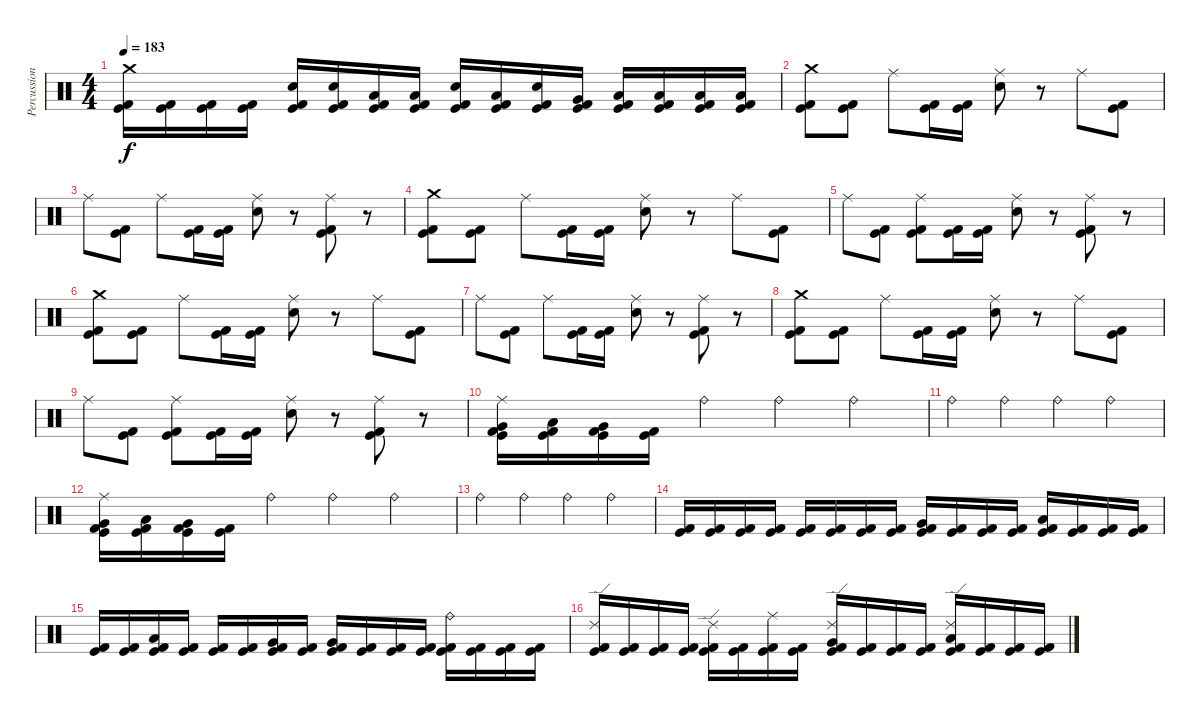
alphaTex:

\track ("Percussion" "Percussion") {instrument percussion}
\staff {score}
\articulation defaults
\ts (4 4)
\tempo 183
\clef neutral
\ks c
("Crash medium (hit)" "Kick (hit)" "Kick (hit) 2").16{dy f} ("Kick (hit)" "Kick (hit) 2").16 ("Kick (hit)" "Kick (hit) 2").16 ("Kick (hit)" "Kick (hit) 2").16 ("Electric Snare (hit)" "Kick (hit)" "Kick (hit) 2").16 ("Electric Snare (hit)" "Kick (hit)" "Kick (hit) 2").16 ("Low Tom (hit)" "Kick (hit)" "Kick (hit) 2").16 ("Low Tom (hit)" "Kick (hit)" "Kick (hit) 2").16 ("Electric Snare (hit)" "Kick (hit)" "Kick (hit) 2").16 ("Low Tom (hit)" "Kick (hit)" "Kick (hit) 2").16 ("Electric Snare (hit)" "Kick (hit)" "Kick (hit) 2").16 ("Very Low Tom (hit)" "Kick (hit)" "Kick (hit) 2").16 ("Low Tom (hit)" "Kick (hit)" "Kick (hit) 2").16 ("Low Tom (hit)" "Kick (hit)" "Kick (hit) 2").16 ("Low Tom (hit)" "Kick (hit)" "Kick (hit) 2").16 ("Low Tom (hit)" "Kick (hit)" "Kick (hit) 2").16 |
("Crash medium (hit)" "Kick (hit)" "Kick (hit) 2").8 ("Kick (hit)" "Kick (hit) 2").8 "Ride (middle)".8 ("Kick (hit)" "Kick (hit) 2").16 ("Kick (hit)" "Kick (hit) 2").16 ("Ride (middle)" "Electric Snare (hit)").8 r.8 "Ride (middle)".8 ("Kick (hit)" "Kick (hit) 2").8 |
"Ride (middle)".8 ("Kick (hit)" "Kick (hit) 2").8 "Ride (middle)".8 ("Kick (hit)" "Kick (hit) 2").16 ("Kick (hit)" "Kick (hit) 2").16 ("Ride (middle)" "Electric Snare (hit)").8 r.8 ("Ride (middle)" "Kick (hit)" "Kick (hit) 2").8 r.8 |
("Crash medium (hit)" "Kick (hit)" "Kick (hit) 2").8 ("Kick (hit)" "Kick (hit) 2").8 "Ride (middle)".8 ("Kick (hit)" "Kick (hit) 2").16 ("Kick (hit)" "Kick (hit) 2").16 ("Ride (middle)" "Electric Snare (hit)").8 r.8 "Ride (middle)".8 ("Kick (hit)" "Kick (hit) 2").8 |
"Ride (middle)".8 ("Kick (hit)" "Kick (hit) 2").8 ("Ride (middle)" "Kick (hit)" "Kick (hit) 2").8 ("Kick (hit)" "Kick (hit) 2").16 ("Kick (hit)" "Kick (hit) 2").16 ("Ride (middle)" "Electric Snare (hit)").8 r.8 ("Ride (middle)" "Kick (hit)" "Kick (hit) 2").8 r.8 |
("Crash medium (hit)" "Kick (hit)" "Kick (hit) 2").8 ("Kick (hit)" "Kick (hit) 2").8 "Ride (middle)".8 ("Kick (hit)" "Kick (hit) 2").16 ("Kick (hit)" "Kick (hit) 2").16 ("Ride (middle)" "Electric Snare (hit)").8 r.8 "Ride (middle)".8 ("Kick (hit)" "Kick (hit) 2").8 |
"Ride (middle)".8 ("Kick (hit)" "Kick (hit) 2").8 "Ride (middle)".8 ("Kick (hit)" "Kick (hit) 2").16 ("Kick (hit)" "Kick (hit) 2").16 ("Ride (middle)" "Electric Snare (hit)").8 r.8 ("Ride (middle)" "Kick (hit)" "Kick (hit) 2").8 r.8 |
("Crash medium (hit)" "Kick (hit)" "Kick (hit) 2").8 ("Kick (hit)" "Kick (hit) 2").8 "Ride (middle)".8 ("Kick (hit)" "Kick (hit) 2").16 ("Kick (hit)" "Kick (hit) 2").16 ("Ride (middle)" "Electric Snare (hit)").8 r.8 "Ride (middle)".8 ("Kick (hit)" "Kick (hit) 2").8 |
"Ride (middle)".8 ("Kick (hit)" "Kick (hit) 2").8 ("Ride (middle)" "Kick (hit)" "Kick (hit) 2").8 ("Kick (hit)" "Kick (hit) 2").16 ("Kick (hit)" "Kick (hit) 2").16 ("Ride (middle)" "Electric Snare (hit)").8 r.8 ("Ride (middle)" "Kick (hit)" "Kick (hit) 2").8 r.8 |
("Ride (middle)" "Very Low Tom (hit)" "Kick (hit)" "Kick (hit) 2").16 ("Low Floor Tom (hit)" "Kick (hit)" "Kick (hit) 2").16 ("Very Low Tom (hit)" "Kick (hit)" "Kick (hit) 2").16 ("Kick (hit)" "Kick (hit) 2").16 "Ride (bell)".4 "Ride (bell)".4 "Ride (bell)".4 |
"Ride (bell)".4 "Ride (bell)".4 "Ride (bell)".4 "Ride (bell)".4 |
("Ride (middle)" "Very Low Tom (hit)" "Kick (hit)" "Kick (hit) 2").16 ("Low Floor Tom (hit)" "Kick (hit)" "Kick (hit) 2").16 ("Very Low Tom (hit)" "Kick (hit)" "Kick (hit) 2").16 ("Kick (hit)" "Kick (hit) 2").16 "Ride (bell)".4 "Ride (bell)".4 "Ride (bell)".4 |
"Ride (bell)".4 "Ride (bell)".4 "Ride (bell)".4 "Ride (bell)".4 |
("Kick (hit)" "Kick (hit) 2").16 ("Kick (hit)" "Kick (hit) 2").16 ("Kick (hit)" "Kick (hit) 2").16 ("Kick (hit)" "Kick (hit) 2").16 ("Kick (hit)" "Kick (hit) 2").16 ("Kick (hit)" "Kick (hit) 2").16 ("Kick (hit)" "Kick (hit) 2").16 ("Kick (hit)" "Kick (hit) 2").16 ("Very Low Tom (hit)" "Kick (hit)" "Kick (hit) 2").16 ("Kick (hit)" "Kick (hit) 2").16 ("Kick (hit)" "Kick (hit) 2").16 ("Kick (hit)" "Kick (hit) 2").16 ("Low Floor Tom (hit)" "Kick (hit)" "Kick (hit) 2").16 ("Kick (hit)" "Kick (hit) 2").16 ("Kick (hit)" "Kick (hit) 2").16 ("Kick (hit)" "Kick (hit) 2").16 |
("Kick (hit)" "Kick (hit) 2").16 ("Kick (hit)" "Kick (hit) 2").16 ("Low Floor Tom (hit)" "Kick (hit)" "Kick (hit) 2").16 ("Kick (hit)" "Kick (hit) 2").16 ("Kick (hit)" "Kick (hit) 2").16 ("Kick (hit)" "Kick (hit) 2").16 ("Very Low Tom (hit)" "Kick (hit)" "Kick (hit) 2").16 ("Kick (hit)" "Kick (hit) 2").16 ("Very Low Tom (hit)" "Kick (hit)" "Kick (hit) 2").16 ("Kick (hit)" "Kick (hit) 2").16 ("Kick (hit)" "Kick (hit) 2").16 ("Kick (hit)" "Kick (hit) 2").16 ("Ride (bell)" "Kick (hit)" "Kick (hit) 2").16 ("Kick (hit)" "Kick (hit) 2").16 ("Kick (hit)" "Kick (hit) 2").16 ("Kick (hit)" "Kick (hit) 2").16 |
("Ride (edge) 2" "Kick (hit)" "Kick (hit) 2").16 ("Kick (hit)" "Kick (hit) 2").16 ("Kick (hit)" "Kick (hit) 2").16 ("Kick (hit)" "Kick (hit) 2").16 ("Ride (edge) 2" "Kick (hit)" "Kick (hit) 2").16 ("Kick (hit)" "Kick (hit) 2").16 ("Ride (middle)" "Kick (hit)" "Kick (hit) 2").16 ("Kick (hit)" "Kick (hit) 2").16 ("Ride (edge) 2" "Very Low Tom (hit)" "Kick (hit)" "Kick (hit) 2").16 ("Kick (hit)" "Kick (hit) 2").16 ("Kick (hit)" "Kick (hit) 2").16 ("Kick (hit)" "Kick (hit) 2").16 ("Ride (edge) 2" "Low Floor Tom (hit)" "Kick (hit)" "Kick (hit) 2").16 ("Kick (hit)" "Kick (hit) 2").16 ("Kick (hit)" "Kick (hit) 2").16 ("Kick (hit)" "Kick (hit) 2").16
